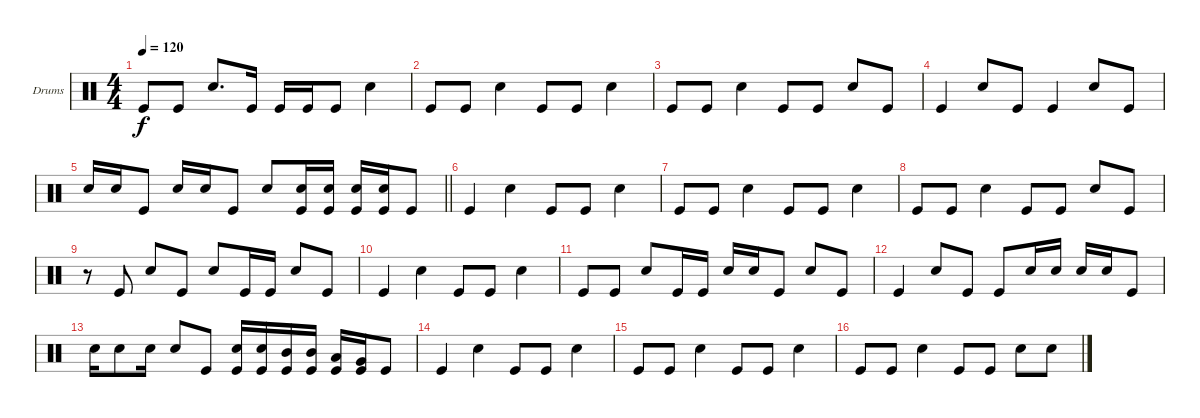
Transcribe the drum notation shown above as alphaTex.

\bracketExtendMode groupsimilarinstruments
\firstSystemTrackNameOrientation horizontal
\otherSystemsTrackNameOrientation horizontal
\track ("Drumkit" "Drums") {instrument percussion}
\staff {score}
\articulation defaults
\ts (4 4)
\tempo 120
\clef neutral
\ks c "Kick (hit)".8{dy f} "Kick (hit)".8 "Snare (hit) 2".8{d} "Kick (hit)".16 "Kick (hit)".16 "Kick (hit)".16 "Kick (hit)".8 "Snare (hit) 2".4
|
"Kick (hit)".8 "Kick (hit)".8 "Snare (hit) 2".4 "Kick (hit)".8 "Kick (hit)".8 "Snare (hit) 2".4 |
"Kick (hit)".8 "Kick (hit)".8 "Snare (hit) 2".4 "Kick (hit)".8 "Kick (hit)".8 "Snare (hit) 2".8 "Kick (hit)".8 |
"Kick (hit)".4 "Snare (hit) 2".8 "Kick (hit)".8 "Kick (hit)".4 "Snare (hit) 2".8 "Kick (hit)".8 |
\barLineRight lightlight "Snare (hit) 2".16 "Snare (hit) 2".16 "Kick (hit)".8 "Snare (hit) 2".16 "Snare (hit) 2".16 "Kick (hit)".8 "Snare (hit) 2".8
("Kick (hit)" "Snare (hit) 2").16 ("Kick (hit)" "Snare (hit) 2").16 ("Kick (hit)" "Snare (hit) 2").16 ("Kick (hit)" "Snare (hit) 2").16 "Kick (hit)".8 |
"Kick (hit)".4 "Snare (hit) 2".4 "Kick (hit)".8 "Kick (hit)".8 "Snare (hit) 2".4 |
"Kick (hit)".8 "Kick (hit)".8 "Snare (hit) 2".4 "Kick (hit)".8 "Kick (hit)".8 "Snare (hit) 2".4 |
"Kick (hit)".8 "Kick (hit)".8 "Snare (hit) 2".4 "Kick (hit)".8 "Kick (hit)".8 "Snare (hit) 2".8 "Kick (hit)".8 |
r.8 "Kick (hit)".8 "Snare (hit) 2".8 "Kick (hit)".8 "Snare (hit) 2".8 "Kick (hit)".16 "Kick (hit)".16 "Snare (hit) 2".8 "Kick (hit)".8 |
"Kick (hit)".4 "Snare (hit) 2".4 "Kick (hit)".8 "Kick (hit)".8 "Snare (hit) 2".4 |
"Kick (hit)".8 "Kick (hit)".8 "Snare (hit) 2".8 "Kick (hit)".16 "Kick (hit)".16 "Snare (hit) 2".16 "Snare (hit) 2".16 "Kick (hit)".8 "Snare (hit) 2".8 "Kick (hit)".8 |
"Kick (hit)".4 "Snare (hit) 2".8 "Kick (hit)".8 "Kick (hit)".8 "Snare (hit) 2".16 "Snare (hit) 2".16 "Snare (hit) 2".16 "Snare (hit) 2".16 "Kick (hit)".8 |
"Snare (hit) 2".16 "Snare (hit) 2".8 "Snare (hit) 2".16 "Snare (hit) 2".8 "Kick (hit)".8 ("Kick (hit)" "Snare (hit) 2").16 ("Kick (hit)" "Snare (hit) 2").16 ("Kick (hit)" "Mid Tom (hit)").16 ("Kick (hit)" "Mid Tom (hit)").16 ("Kick (hit)" "Low Tom (hit)").16 ("Kick (hit)" "Very Low Tom (hit)").16 "Kick (hit)".8 |
"Kick (hit)".4 "Snare (hit) 2".4 "Kick (hit)".8 "Kick (hit)".8 "Snare (hit) 2".4 |
"Kick (hit)".8 "Kick (hit)".8 "Snare (hit) 2".4 "Kick (hit)".8 "Kick (hit)".8 "Snare (hit) 2".4 |
"Kick (hit)".8 "Kick (hit)".8 "Snare (hit) 2".4 "Kick (hit)".8 "Kick (hit)".8 "Snare (hit) 2".8 "Snare (hit) 2".8
